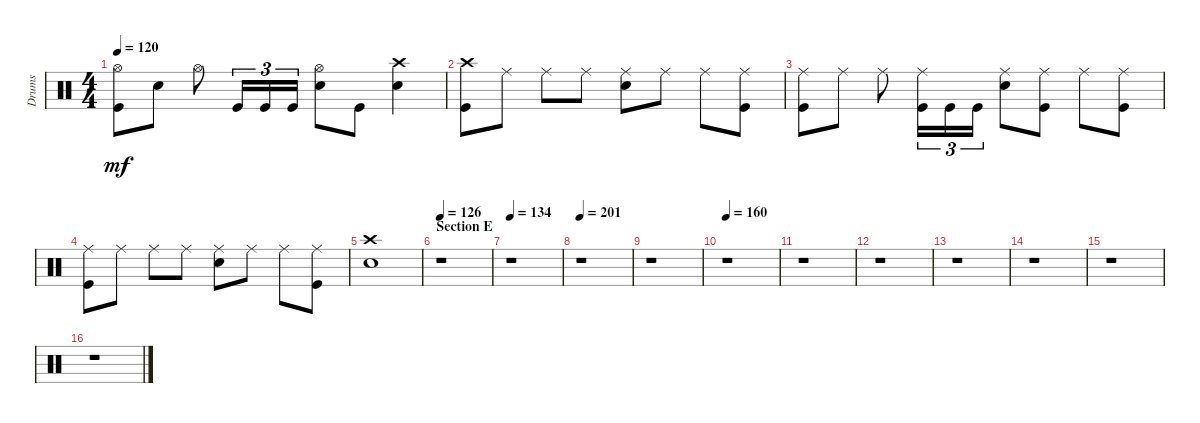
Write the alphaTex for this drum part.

\track ("Drums" "Drums") {instrument percussion}
\staff {score}
\articulation defaults
\ts (4 4)
\tempo 120
\clef neutral
\ks aminor
("Hi-Hat (open)" "Kick (hit)").8{dy mf} "Snare (hit) 2".8 "Hi-Hat (open)".8 "Kick (hit)".16{tu (3 2)} "Kick (hit)".16{tu (3 2)} "Kick (hit)".16{tu (3 2)} ("Snare (hit) 2" "Hi-Hat (open)").8 "Kick (hit)".8 ("Snare (hit) 2" "Crash high (hit)").4 |
("Kick (hit)" "Crash high (hit)").8 "Ride (middle)".8 "Ride (middle)".8 "Ride (middle)".8 ("Snare (hit) 2" "Ride (middle)").8 "Ride (middle)".8 "Ride (middle)".8 ("Ride (middle)" "Kick (hit)").8 |
("Kick (hit)" "Ride (middle)").8 "Ride (middle)".8 "Ride (middle)".8 ("Kick (hit)" "Ride (middle)").16{tu (3 2)} "Kick (hit)".16{tu (3 2)} "Kick (hit)".16{tu (3 2)} ("Snare (hit) 2" "Ride (middle)").8 ("Ride (middle)" "Kick (hit)").8 "Ride (middle)".8 ("Ride (middle)" "Kick (hit)").8 |
("Kick (hit)" "Ride (middle)").8 "Ride (middle)".8 "Ride (middle)".8 "Ride (middle)".8 ("Snare (hit) 2" "Ride (middle)").8 "Ride (middle)".8 "Ride (middle)".8 ("Ride (middle)" "Kick (hit)").8 |
("Snare (hit) 2" "Crash high (hit)").1 |
\section ("" "Section E")
\tempo 126
r.1 |
\tempo 134
r.1 |
\tempo 201
r.1 |
r.1 |
\tempo 160
r.1 |
r.1 |
r.1 |
r.1 |
r.1 |
r.1 |
r.1
